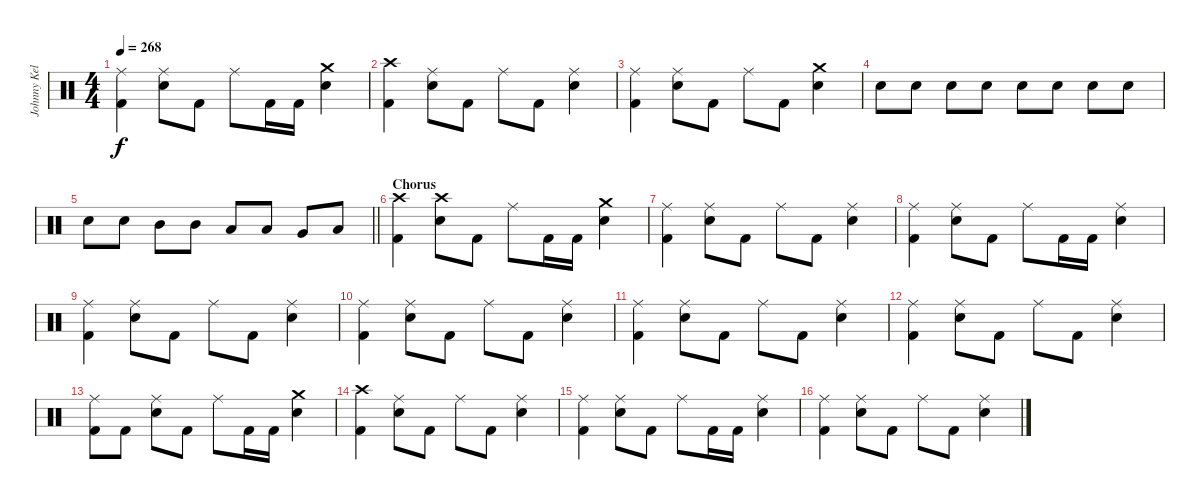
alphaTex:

\track ("Johnny Kelly" "Johnny Kel") {instrument percussion}
\staff {score}
\articulation defaults
\ts (4 4)
\tempo 268
\clef neutral
\ks c
("Ride (middle)" "Kick (hit) 2").4{dy f} ("Ride (middle)" "Electric Snare (hit)").8 "Kick (hit) 2".8 "Ride (middle)".8 "Kick (hit) 2".16 "Kick (hit) 2".16 ("Crash medium (hit)" "Electric Snare (hit)").4 |
("Crash high (hit)" "Kick (hit) 2").4 ("Ride (middle)" "Electric Snare (hit)").8 "Kick (hit) 2".8 "Ride (middle)".8 "Kick (hit) 2".8 ("Ride (middle)" "Electric Snare (hit)").4 |
("Ride (middle)" "Kick (hit) 2").4 ("Ride (middle)" "Electric Snare (hit)").8 "Kick (hit) 2".8 "Ride (middle)".8 "Kick (hit) 2".8 ("Crash medium (hit)" "Electric Snare (hit)").4 |
"Electric Snare (hit)".8 "Electric Snare (hit)".8 "Electric Snare (hit)".8 "Electric Snare (hit)".8 "Electric Snare (hit)".8 "Electric Snare (hit)".8 "Electric Snare (hit)".8 "Electric Snare (hit)".8 |
\barLineRight lightlight "Electric Snare (hit)".8 "Electric Snare (hit)".8 "Mid Tom (hit)".8 "Mid Tom (hit)".8 "Low Tom (hit)".8 "Low Tom (hit)".8 "Very Low Tom (hit)".8 "Low Floor Tom (hit)".8
|
\section ("" "Chorus")
("Crash high (hit)" "Kick (hit) 2").4 ("Crash high (hit)" "Electric Snare (hit)").8 "Kick (hit) 2".8 "Ride (middle)".8 "Kick (hit) 2".16 "Kick (hit) 2".16 ("Crash medium (hit)" "Electric Snare (hit)").4 |
("Ride (middle)" "Kick (hit) 2").4 ("Ride (middle)" "Electric Snare (hit)").8 "Kick (hit) 2".8 "Ride (middle)".8 "Kick (hit) 2".8 ("Ride (middle)" "Electric Snare (hit)").4 |
("Ride (middle)" "Kick (hit) 2").4 ("Ride (middle)" "Electric Snare (hit)").8 "Kick (hit) 2".8 "Ride (middle)".8 "Kick (hit) 2".16 "Kick (hit) 2".16 ("Ride (middle)" "Electric Snare (hit)").4 |
("Ride (middle)" "Kick (hit) 2").4 ("Ride (middle)" "Electric Snare (hit)").8 "Kick (hit) 2".8 "Ride (middle)".8 "Kick (hit) 2".8 ("Ride (middle)" "Electric Snare (hit)").4 |
("Ride (middle)" "Kick (hit) 2").4 ("Ride (middle)" "Electric Snare (hit)").8 "Kick (hit) 2".8 "Ride (middle)".8 "Kick (hit) 2".8 ("Ride (middle)" "Electric Snare (hit)").4 |
("Ride (middle)" "Kick (hit) 2").4 ("Ride (middle)" "Electric Snare (hit)").8 "Kick (hit) 2".8 "Ride (middle)".8 "Kick (hit) 2".8 ("Ride (middle)" "Electric Snare (hit)").4 |
("Ride (middle)" "Kick (hit) 2").4 ("Ride (middle)" "Electric Snare (hit)").8 "Kick (hit) 2".8 "Ride (middle)".8 "Kick (hit) 2".8 ("Ride (middle)" "Electric Snare (hit)").4 |
("Ride (middle)" "Kick (hit) 2").8 "Kick (hit) 2".8 ("Ride (middle)" "Electric Snare (hit)").8 "Kick (hit) 2".8 "Ride (middle)".8 "Kick (hit) 2".16 "Kick (hit) 2".16 ("Crash medium (hit)" "Electric Snare (hit)").4 |
("Crash high (hit)" "Kick (hit) 2").4 ("Ride (middle)" "Electric Snare (hit)").8 "Kick (hit) 2".8 "Ride (middle)".8 "Kick (hit) 2".8 ("Ride (middle)" "Electric Snare (hit)").4 |
("Ride (middle)" "Kick (hit) 2").4 ("Ride (middle)" "Electric Snare (hit)").8 "Kick (hit) 2".8 "Ride (middle)".8 "Kick (hit) 2".16 "Kick (hit) 2".16 ("Ride (middle)" "Electric Snare (hit)").4 |
("Ride (middle)" "Kick (hit) 2").4 ("Ride (middle)" "Electric Snare (hit)").8 "Kick (hit) 2".8 "Ride (middle)".8 "Kick (hit) 2".8 ("Ride (middle)" "Electric Snare (hit)").4
